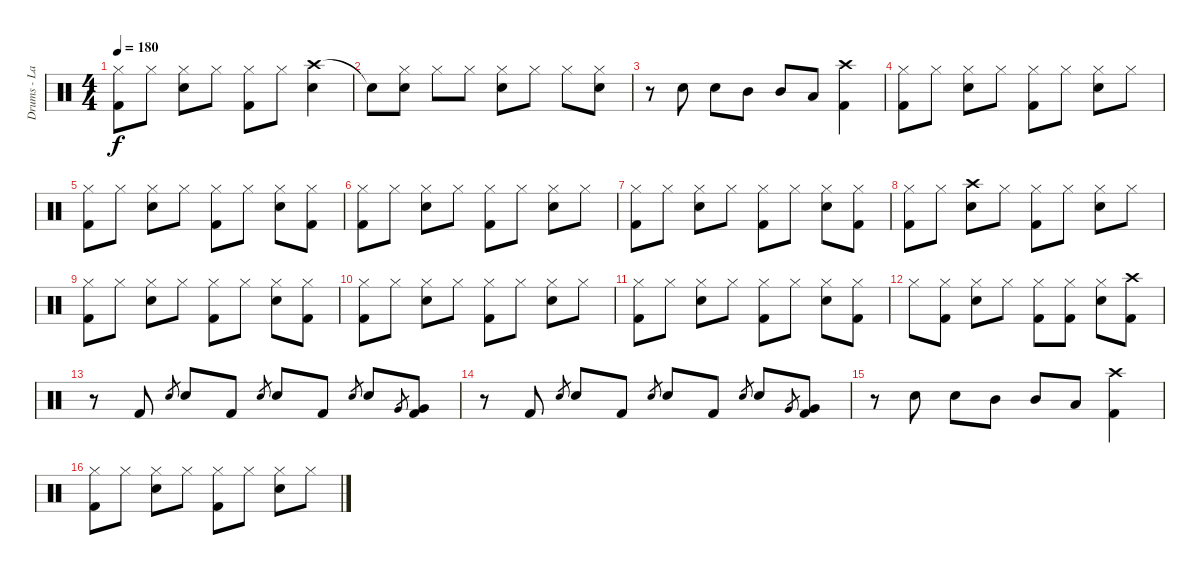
\track ("Drums - Lars" "Drums - La") {instrument percussion}
\staff {score}
\articulation defaults
\ts (4 4)
\tempo 180
\clef neutral
\ks c
("Hi-Hat (closed)" "Kick (hit) 2").8{dy f} "Hi-Hat (closed)".8 ("Hi-Hat (closed)" "Snare (hit) 2").8 "Hi-Hat (closed)".8 ("Hi-Hat (closed)" "Kick (hit) 2").8 "Hi-Hat (closed)".8 ("Crash high (hit)" "Snare (hit) 2").4 |
"Snare (hit)"{t}.8 ("Hi-Hat (closed)" "Snare (hit) 2").8 "Hi-Hat (closed)".8 "Hi-Hat (closed)".8 ("Hi-Hat (closed)" "Snare (hit) 2").8 "Hi-Hat (closed)".8 "Hi-Hat (closed)".8 ("Hi-Hat (closed)" "Snare (hit) 2").8 |
r.8 "Snare (hit) 2".8 "Snare (hit) 2".8 "Mid Tom (hit)".8 "Mid Tom (hit)".8 "Low Tom (hit)".8 ("Crash high (hit)" "Kick (hit) 2").4 |
("Hi-Hat (closed)" "Kick (hit) 2").8 "Hi-Hat (closed)".8 ("Hi-Hat (closed)" "Snare (hit) 2").8 "Hi-Hat (closed)".8 ("Hi-Hat (closed)" "Kick (hit) 2").8 "Hi-Hat (closed)".8 ("Hi-Hat (closed)" "Snare (hit) 2").8 "Hi-Hat (closed)".8 |
("Hi-Hat (closed)" "Kick (hit) 2").8 "Hi-Hat (closed)".8 ("Hi-Hat (closed)" "Snare (hit) 2").8 "Hi-Hat (closed)".8 ("Hi-Hat (closed)" "Kick (hit) 2").8 "Hi-Hat (closed)".8 ("Hi-Hat (closed)" "Snare (hit) 2").8 ("Hi-Hat (closed)" "Kick (hit) 2").8 |
("Hi-Hat (closed)" "Kick (hit) 2").8 "Hi-Hat (closed)".8 ("Hi-Hat (closed)" "Snare (hit) 2").8 "Hi-Hat (closed)".8 ("Hi-Hat (closed)" "Kick (hit) 2").8 "Hi-Hat (closed)".8 ("Hi-Hat (closed)" "Snare (hit) 2").8 "Hi-Hat (closed)".8 |
("Hi-Hat (closed)" "Kick (hit) 2").8 "Hi-Hat (closed)".8 ("Hi-Hat (closed)" "Snare (hit) 2").8 "Hi-Hat (closed)".8 ("Hi-Hat (closed)" "Kick (hit) 2").8 "Hi-Hat (closed)".8 ("Hi-Hat (closed)" "Snare (hit) 2").8 ("Hi-Hat (closed)" "Kick (hit) 2").8 |
("Hi-Hat (closed)" "Kick (hit) 2").8 "Hi-Hat (closed)".8 ("Crash high (hit)" "Snare (hit) 2").8 "Hi-Hat (closed)".8 ("Hi-Hat (closed)" "Kick (hit) 2").8 "Hi-Hat (closed)".8 ("Hi-Hat (closed)" "Snare (hit) 2").8 "Hi-Hat (closed)".8 |
("Hi-Hat (closed)" "Kick (hit) 2").8 "Hi-Hat (closed)".8 ("Hi-Hat (closed)" "Snare (hit) 2").8 "Hi-Hat (closed)".8 ("Hi-Hat (closed)" "Kick (hit) 2").8 "Hi-Hat (closed)".8 ("Hi-Hat (closed)" "Snare (hit) 2").8 ("Hi-Hat (closed)" "Kick (hit) 2").8 |
("Hi-Hat (closed)" "Kick (hit) 2").8 "Hi-Hat (closed)".8 ("Hi-Hat (closed)" "Snare (hit) 2").8 "Hi-Hat (closed)".8 ("Hi-Hat (closed)" "Kick (hit) 2").8 "Hi-Hat (closed)".8 ("Hi-Hat (closed)" "Snare (hit) 2").8 "Hi-Hat (closed)".8 |
("Hi-Hat (closed)" "Kick (hit) 2").8 "Hi-Hat (closed)".8 ("Hi-Hat (closed)" "Snare (hit) 2").8 "Hi-Hat (closed)".8 ("Hi-Hat (closed)" "Kick (hit) 2").8 "Hi-Hat (closed)".8 ("Hi-Hat (closed)" "Snare (hit) 2").8 ("Hi-Hat (closed)" "Kick (hit) 2").8 |
"Hi-Hat (closed)".8 ("Hi-Hat (closed)" "Kick (hit) 2").8 ("Hi-Hat (closed)" "Snare (hit) 2").8 "Hi-Hat (closed)".8 ("Hi-Hat (closed)" "Kick (hit) 2").8 ("Hi-Hat (closed)" "Kick (hit) 2").8 ("Hi-Hat (closed)" "Snare (hit) 2").8 ("Crash high (hit)" "Kick (hit) 2").8 |
r.8 "Kick (hit) 2".8 "Snare (hit) 2".8{gr} "Snare (hit) 2".8 "Kick (hit) 2".8 "Snare (hit) 2".8{gr} "Snare (hit) 2".8 "Kick (hit) 2".8 "Snare (hit) 2".8{gr} "Snare (hit) 2".8 "Very Low Tom (hit)".8{gr} ("Very Low Tom (hit)" "Kick (hit) 2").8 |
r.8 "Kick (hit) 2".8 "Snare (hit) 2".8{gr} "Snare (hit) 2".8 "Kick (hit) 2".8 "Snare (hit) 2".8{gr} "Snare (hit) 2".8 "Kick (hit) 2".8 "Snare (hit) 2".8{gr} "Snare (hit) 2".8 "Very Low Tom (hit)".8{gr} ("Very Low Tom (hit)" "Kick (hit) 2").8 |
r.8 "Snare (hit) 2".8 "Snare (hit) 2".8 "Mid Tom (hit)".8 "Mid Tom (hit)".8 "Low Tom (hit)".8 ("Crash high (hit)" "Kick (hit) 2").4 |
("Hi-Hat (closed)" "Kick (hit) 2").8 "Hi-Hat (closed)".8 ("Hi-Hat (closed)" "Snare (hit) 2").8 "Hi-Hat (closed)".8 ("Hi-Hat (closed)" "Kick (hit) 2").8 "Hi-Hat (closed)".8 ("Hi-Hat (closed)" "Snare (hit) 2").8 "Hi-Hat (closed)".8
